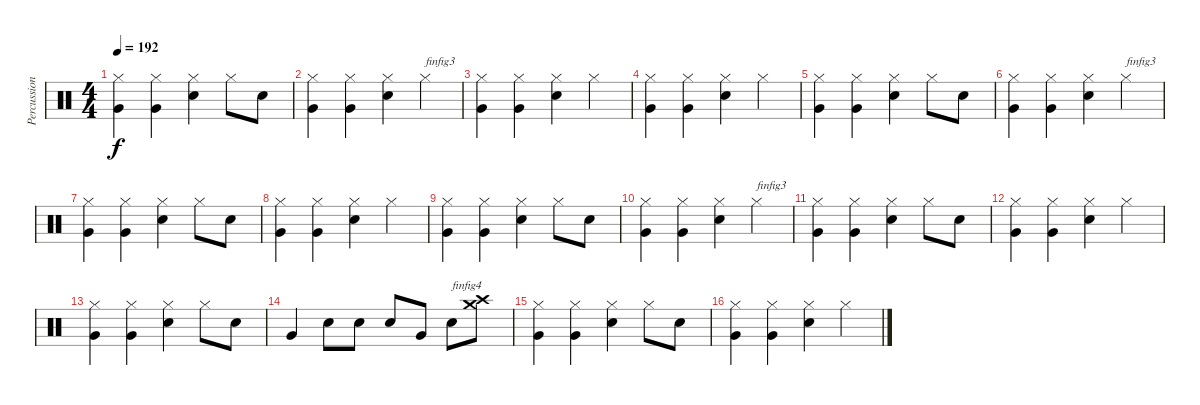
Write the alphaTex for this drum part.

\track ("Percussions" "Percussion") {instrument percussion}
\staff {score}
\articulation defaults
\ts (4 4)
\tempo 192
\clef neutral
\ks c
("Very Low Tom (hit)" "Hi-Hat (closed)").4{dy f} ("Very Low Tom (hit)" "Hi-Hat (closed)").4 ("Snare (hit) 2" "Hi-Hat (closed)").4 "Hi-Hat (closed)".8 "Snare (hit) 2".8 |
("Very Low Tom (hit)" "Hi-Hat (closed)").4 ("Very Low Tom (hit)" "Hi-Hat (closed)").4 ("Snare (hit) 2" "Hi-Hat (closed)").4 "Hi-Hat (closed)".4{txt "finfig3"} |
("Very Low Tom (hit)" "Hi-Hat (closed)").4 ("Very Low Tom (hit)" "Hi-Hat (closed)").4 ("Snare (hit) 2" "Hi-Hat (closed)").4 "Hi-Hat (closed)".4 |
("Very Low Tom (hit)" "Hi-Hat (closed)").4 ("Very Low Tom (hit)" "Hi-Hat (closed)").4 ("Snare (hit) 2" "Hi-Hat (closed)").4 "Hi-Hat (closed)".4 |
("Very Low Tom (hit)" "Hi-Hat (closed)").4 ("Very Low Tom (hit)" "Hi-Hat (closed)").4 ("Snare (hit) 2" "Hi-Hat (closed)").4 "Hi-Hat (closed)".8 "Snare (hit) 2".8 |
("Very Low Tom (hit)" "Hi-Hat (closed)").4 ("Very Low Tom (hit)" "Hi-Hat (closed)").4 ("Snare (hit) 2" "Hi-Hat (closed)").4 "Hi-Hat (closed)".4{txt "finfig3"} |
("Very Low Tom (hit)" "Hi-Hat (closed)").4 ("Very Low Tom (hit)" "Hi-Hat (closed)").4 ("Snare (hit) 2" "Hi-Hat (closed)").4 "Hi-Hat (closed)".8 "Snare (hit) 2".8 |
("Very Low Tom (hit)" "Hi-Hat (closed)").4 ("Very Low Tom (hit)" "Hi-Hat (closed)").4 ("Snare (hit) 2" "Hi-Hat (closed)").4 "Hi-Hat (closed)".4 |
("Very Low Tom (hit)" "Hi-Hat (closed)").4 ("Very Low Tom (hit)" "Hi-Hat (closed)").4 ("Snare (hit) 2" "Hi-Hat (closed)").4 "Hi-Hat (closed)".8 "Snare (hit) 2".8 |
("Very Low Tom (hit)" "Hi-Hat (closed)").4 ("Very Low Tom (hit)" "Hi-Hat (closed)").4 ("Snare (hit) 2" "Hi-Hat (closed)").4 "Hi-Hat (closed)".4{txt "finfig3"} |
("Very Low Tom (hit)" "Hi-Hat (closed)").4 ("Very Low Tom (hit)" "Hi-Hat (closed)").4 ("Snare (hit) 2" "Hi-Hat (closed)").4 "Hi-Hat (closed)".8 "Snare (hit) 2".8 |
("Very Low Tom (hit)" "Hi-Hat (closed)").4 ("Very Low Tom (hit)" "Hi-Hat (closed)").4 ("Snare (hit) 2" "Hi-Hat (closed)").4 "Hi-Hat (closed)".4 |
("Very Low Tom (hit)" "Hi-Hat (closed)").4 ("Very Low Tom (hit)" "Hi-Hat (closed)").4 ("Snare (hit) 2" "Hi-Hat (closed)").4 "Hi-Hat (closed)".8 "Snare (hit) 2".8 |
"Very Low Tom (hit)".4 "Snare (hit) 2".8 "Snare (hit) 2".8 "Snare (hit) 2".8 "Very Low Tom (hit)".8 "Snare (hit) 2".8{txt "finfig4"} ("Crash high (hit)" "Crash medium (hit)").8 |
("Very Low Tom (hit)" "Hi-Hat (closed)").4 ("Very Low Tom (hit)" "Hi-Hat (closed)").4 ("Snare (hit) 2" "Hi-Hat (closed)").4 "Hi-Hat (closed)".8 "Snare (hit) 2".8 |
("Very Low Tom (hit)" "Hi-Hat (closed)").4 ("Very Low Tom (hit)" "Hi-Hat (closed)").4 ("Snare (hit) 2" "Hi-Hat (closed)").4 "Hi-Hat (closed)".4
